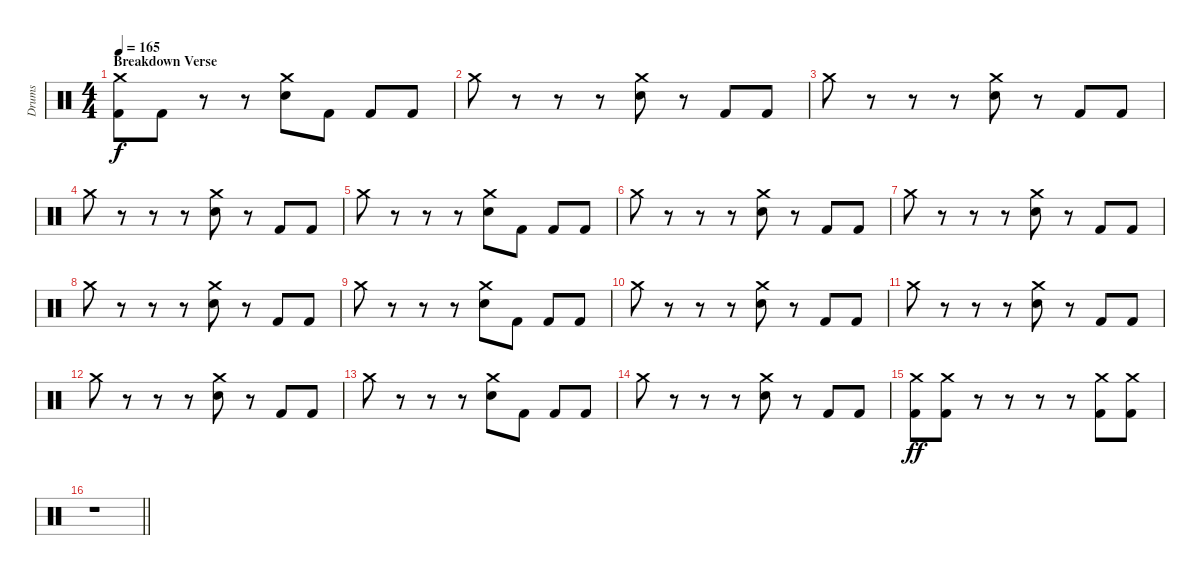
\track ("Drums" "Drums") {instrument percussion}
\staff {score}
\articulation defaults
\ts (4 4)
\section ("" "Breakdown Verse")
\tempo 165
\clef neutral
\ks c
("Crash medium (hit)" "Kick (hit) 2").8{dy f} "Kick (hit) 2".8 r.8 r.8 ("Crash medium (hit)" "Electric Snare (hit)").8 "Kick (hit) 2".8 "Kick (hit) 2".8 "Kick (hit) 2".8 |
"Crash medium (hit)".8 r.8 r.8 r.8 ("Crash medium (hit)" "Electric Snare (hit)").8 r.8 "Kick (hit) 2".8 "Kick (hit) 2".8 |
"Crash medium (hit)".8 r.8 r.8 r.8 ("Crash medium (hit)" "Electric Snare (hit)").8 r.8 "Kick (hit) 2".8 "Kick (hit) 2".8 |
"Crash medium (hit)".8 r.8 r.8 r.8 ("Crash medium (hit)" "Electric Snare (hit)").8 r.8 "Kick (hit) 2".8 "Kick (hit) 2".8 |
"Crash medium (hit)".8 r.8 r.8 r.8 ("Crash medium (hit)" "Electric Snare (hit)").8 "Kick (hit) 2".8 "Kick (hit) 2".8 "Kick (hit) 2".8 |
"Crash medium (hit)".8 r.8 r.8 r.8 ("Crash medium (hit)" "Electric Snare (hit)").8 r.8 "Kick (hit) 2".8 "Kick (hit) 2".8 |
"Crash medium (hit)".8 r.8 r.8 r.8 ("Crash medium (hit)" "Electric Snare (hit)").8 r.8 "Kick (hit) 2".8 "Kick (hit) 2".8 |
"Crash medium (hit)".8 r.8 r.8 r.8 ("Crash medium (hit)" "Electric Snare (hit)").8 r.8 "Kick (hit) 2".8 "Kick (hit) 2".8 |
"Crash medium (hit)".8 r.8 r.8 r.8 ("Crash medium (hit)" "Electric Snare (hit)").8 "Kick (hit) 2".8 "Kick (hit) 2".8 "Kick (hit) 2".8 |
"Crash medium (hit)".8 r.8 r.8 r.8 ("Crash medium (hit)" "Electric Snare (hit)").8 r.8 "Kick (hit) 2".8 "Kick (hit) 2".8 |
"Crash medium (hit)".8 r.8 r.8 r.8 ("Crash medium (hit)" "Electric Snare (hit)").8 r.8 "Kick (hit) 2".8 "Kick (hit) 2".8 |
"Crash medium (hit)".8 r.8 r.8 r.8 ("Crash medium (hit)" "Electric Snare (hit)").8 r.8 "Kick (hit) 2".8 "Kick (hit) 2".8 |
"Crash medium (hit)".8 r.8 r.8 r.8 ("Crash medium (hit)" "Electric Snare (hit)").8 "Kick (hit) 2".8 "Kick (hit) 2".8 "Kick (hit) 2".8 |
"Crash medium (hit)".8 r.8 r.8 r.8 ("Crash medium (hit)" "Electric Snare (hit)").8 r.8 "Kick (hit) 2".8 "Kick (hit) 2".8 |
("Crash medium (hit)" "Kick (hit) 2").8{dy ff} ("Crash medium (hit)" "Kick (hit) 2").8 r.8{volume 0} r.8 r.8 r.8 ("Crash medium (hit)" "Kick (hit) 2").8{volume 13} ("Crash medium (hit)" "Kick (hit) 2").8 |
\barLineRight lightlight
r.1{volume 0}
